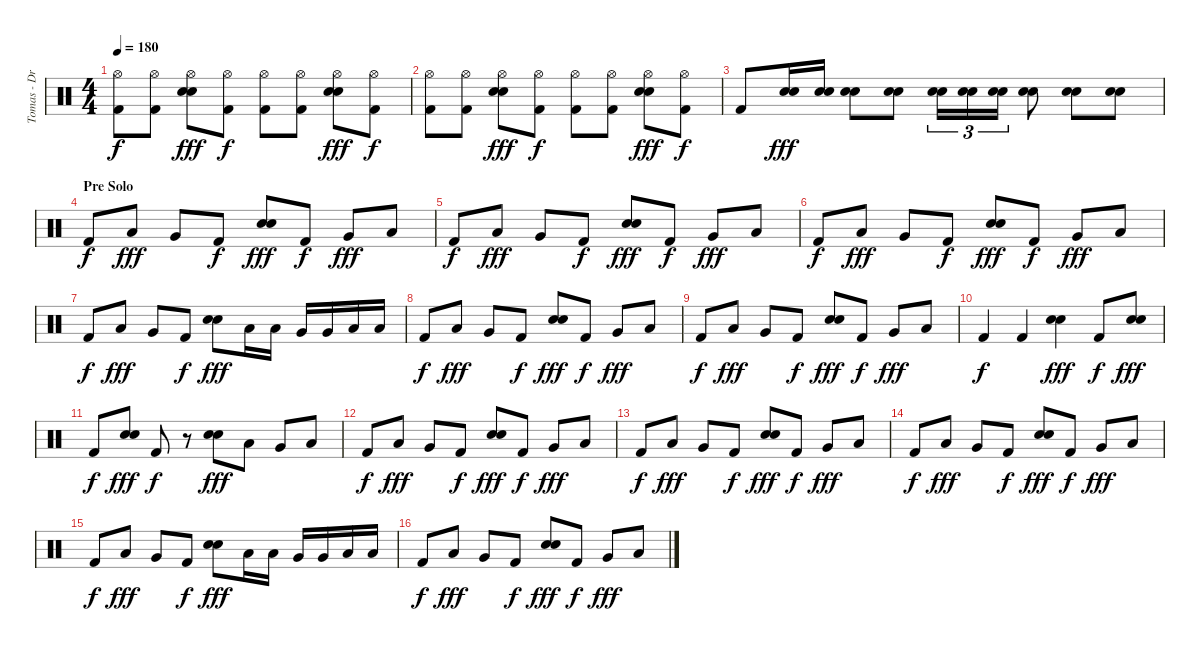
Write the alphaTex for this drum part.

\track ("Tomas - Drums" "Tomas - Dr") {instrument percussion}
\staff {score}
\articulation defaults
\ts (4 4)
\tempo 180
\clef neutral
\ks c
("Hi-Hat (open)" "Kick (hit) 2").8{dy f} ("Hi-Hat (open)" "Kick (hit) 2").8 ("Hi-Hat (open)" "Electric Snare (hit)" "Electric Snare (hit)").8{dy fff} ("Hi-Hat (open)" "Kick (hit) 2").8{dy f} ("Hi-Hat (open)" "Kick (hit) 2").8 ("Hi-Hat (open)" "Kick (hit) 2").8 ("Hi-Hat (open)" "Electric Snare (hit)" "Electric Snare (hit)").8{dy fff} ("Hi-Hat (open)" "Kick (hit) 2").8{dy f} |
("Hi-Hat (open)" "Kick (hit) 2").8 ("Hi-Hat (open)" "Kick (hit) 2").8 ("Hi-Hat (open)" "Electric Snare (hit)" "Electric Snare (hit)").8{dy fff} ("Hi-Hat (open)" "Kick (hit) 2").8{dy f} ("Hi-Hat (open)" "Kick (hit) 2").8 ("Hi-Hat (open)" "Kick (hit) 2").8 ("Hi-Hat (open)" "Electric Snare (hit)" "Electric Snare (hit)").8{dy fff} ("Hi-Hat (open)" "Kick (hit) 2").8{dy f} |
"Kick (hit) 2".8 ("Electric Snare (hit)" "Electric Snare (hit)").16{dy fff} ("Electric Snare (hit)" "Electric Snare (hit)").16 ("Electric Snare (hit)" "Electric Snare (hit)").8 ("Electric Snare (hit)" "Electric Snare (hit)").8 ("Electric Snare (hit)" "Electric Snare (hit)").16{tu (3 2)} ("Electric Snare (hit)" "Electric Snare (hit)").16{tu (3 2)} ("Electric Snare (hit)" "Electric Snare (hit)").16{tu (3 2)} ("Electric Snare (hit)" "Electric Snare (hit)").8 ("Electric Snare (hit)" "Electric Snare (hit)").8 ("Electric Snare (hit)" "Electric Snare (hit)").8 |
\section ("" "Pre Solo")
"Kick (hit) 2".8{dy f} "Low Tom (hit)".8{dy fff} "Very Low Tom (hit)".8 "Kick (hit) 2".8{dy f} ("Electric Snare (hit)" "Electric Snare (hit)").8{dy fff} "Kick (hit) 2".8{dy f} "Very Low Tom (hit)".8{dy fff} "Low Tom (hit)".8 |
"Kick (hit) 2".8{dy f} "Low Tom (hit)".8{dy fff} "Very Low Tom (hit)".8 "Kick (hit) 2".8{dy f} ("Electric Snare (hit)" "Electric Snare (hit)").8{dy fff} "Kick (hit) 2".8{dy f} "Very Low Tom (hit)".8{dy fff} "Low Tom (hit)".8 |
"Kick (hit) 2".8{dy f} "Low Tom (hit)".8{dy fff} "Very Low Tom (hit)".8 "Kick (hit) 2".8{dy f} ("Electric Snare (hit)" "Electric Snare (hit)").8{dy fff} "Kick (hit) 2".8{dy f} "Very Low Tom (hit)".8{dy fff} "Low Tom (hit)".8 |
"Kick (hit) 2".8{dy f} "Low Tom (hit)".8{dy fff} "Very Low Tom (hit)".8 "Kick (hit) 2".8{dy f} ("Electric Snare (hit)" "Electric Snare (hit)").8{dy fff} "Low Tom (hit)".16 "Low Tom (hit)".16 "Very Low Tom (hit)".16 "Very Low Tom (hit)".16 "Low Floor Tom (hit)".16 "Low Floor Tom (hit)".16 |
"Kick (hit) 2".8{dy f} "Low Tom (hit)".8{dy fff} "Very Low Tom (hit)".8 "Kick (hit) 2".8{dy f} ("Electric Snare (hit)" "Electric Snare (hit)").8{dy fff} "Kick (hit) 2".8{dy f} "Very Low Tom (hit)".8{dy fff} "Low Tom (hit)".8 |
"Kick (hit) 2".8{dy f} "Low Tom (hit)".8{dy fff} "Very Low Tom (hit)".8 "Kick (hit) 2".8{dy f} ("Electric Snare (hit)" "Electric Snare (hit)").8{dy fff} "Kick (hit) 2".8{dy f} "Very Low Tom (hit)".8{dy fff} "Low Tom (hit)".8 |
"Kick (hit) 2".4{dy f} "Kick (hit) 2".4 ("Electric Snare (hit)" "Electric Snare (hit)").4{dy fff} "Kick (hit) 2".8{dy f} ("Electric Snare (hit)" "Electric Snare (hit)").8{dy fff} |
"Kick (hit) 2".8{dy f} ("Electric Snare (hit)" "Electric Snare (hit)").8{dy fff} "Kick (hit) 2".8{dy f} r.8 ("Electric Snare (hit)" "Electric Snare (hit)").8{dy fff} "Low Tom (hit)".8 "Very Low Tom (hit)".8 "Low Floor Tom (hit)".8 |
"Kick (hit) 2".8{dy f} "Low Tom (hit)".8{dy fff} "Very Low Tom (hit)".8 "Kick (hit) 2".8{dy f} ("Electric Snare (hit)" "Electric Snare (hit)").8{dy fff} "Kick (hit) 2".8{dy f} "Very Low Tom (hit)".8{dy fff} "Low Tom (hit)".8 |
"Kick (hit) 2".8{dy f} "Low Tom (hit)".8{dy fff} "Very Low Tom (hit)".8 "Kick (hit) 2".8{dy f} ("Electric Snare (hit)" "Electric Snare (hit)").8{dy fff} "Kick (hit) 2".8{dy f} "Very Low Tom (hit)".8{dy fff} "Low Tom (hit)".8 |
"Kick (hit) 2".8{dy f} "Low Tom (hit)".8{dy fff} "Very Low Tom (hit)".8 "Kick (hit) 2".8{dy f} ("Electric Snare (hit)" "Electric Snare (hit)").8{dy fff} "Kick (hit) 2".8{dy f} "Very Low Tom (hit)".8{dy fff} "Low Tom (hit)".8 |
"Kick (hit) 2".8{dy f} "Low Tom (hit)".8{dy fff} "Very Low Tom (hit)".8 "Kick (hit) 2".8{dy f} ("Electric Snare (hit)" "Electric Snare (hit)").8{dy fff} "Low Tom (hit)".16 "Low Tom (hit)".16 "Very Low Tom (hit)".16 "Very Low Tom (hit)".16 "Low Floor Tom (hit)".16 "Low Floor Tom (hit)".16 |
"Kick (hit) 2".8{dy f} "Low Tom (hit)".8{dy fff} "Very Low Tom (hit)".8 "Kick (hit) 2".8{dy f} ("Electric Snare (hit)" "Electric Snare (hit)").8{dy fff} "Kick (hit) 2".8{dy f} "Very Low Tom (hit)".8{dy fff} "Low Floor Tom (hit)".8
